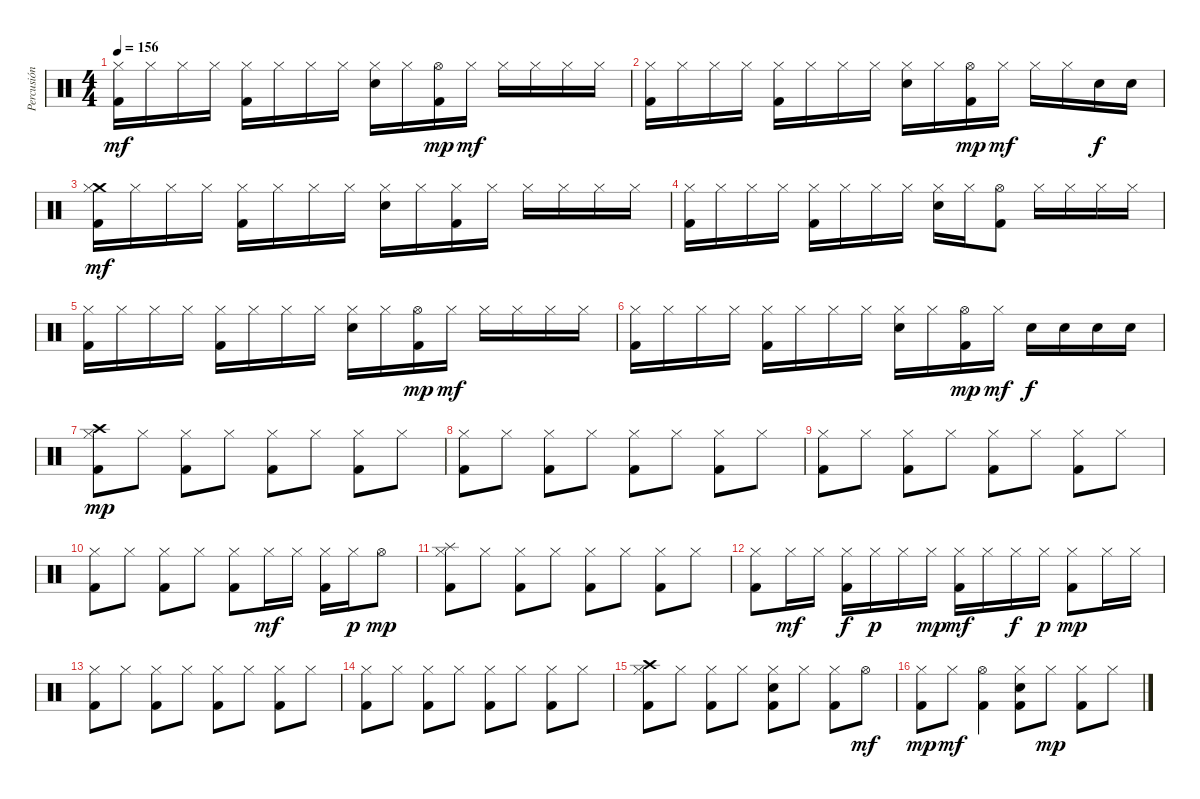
\track ("Percusión" "Percusión") {instrument percussion}
\staff {score}
\articulation defaults
\ts (4 4)
\tempo 156
\clef neutral
\ks c
("Hi-Hat (closed)" "Kick (hit) 2").16{dy mf} "Hi-Hat (closed)".16 "Hi-Hat (closed)".16 "Hi-Hat (closed)".16 ("Hi-Hat (closed)" "Kick (hit) 2").16 "Hi-Hat (closed)".16 "Hi-Hat (closed)".16 "Hi-Hat (closed)".16 ("Hi-Hat (closed)" "Electric Snare (hit)").16 "Hi-Hat (closed)".16 ("Hi-Hat (open)" "Kick (hit) 2").16{dy mp} "Hi-Hat (closed)".16{dy mf} "Hi-Hat (closed)".16 "Hi-Hat (closed)".16 "Hi-Hat (closed)".16 "Hi-Hat (closed)".16 |
("Hi-Hat (closed)" "Kick (hit) 2").16 "Hi-Hat (closed)".16 "Hi-Hat (closed)".16 "Hi-Hat (closed)".16 ("Hi-Hat (closed)" "Kick (hit) 2").16 "Hi-Hat (closed)".16 "Hi-Hat (closed)".16 "Hi-Hat (closed)".16 ("Hi-Hat (closed)" "Electric Snare (hit)").16 "Hi-Hat (closed)".16 ("Hi-Hat (open)" "Kick (hit) 2").16{dy mp} "Hi-Hat (closed)".16{dy mf} "Hi-Hat (closed)".16 "Hi-Hat (closed)".16 "Electric Snare (hit)".16{dy f} "Electric Snare (hit)".16 |
("Crash medium (hit)" "Hi-Hat (closed)" "Kick (hit) 2").16{dy mf} "Hi-Hat (closed)".16 "Hi-Hat (closed)".16 "Hi-Hat (closed)".16 ("Hi-Hat (closed)" "Kick (hit) 2").16 "Hi-Hat (closed)".16 "Hi-Hat (closed)".16 "Hi-Hat (closed)".16 ("Hi-Hat (closed)" "Electric Snare (hit)").16 "Hi-Hat (closed)".16 ("Hi-Hat (closed)" "Kick (hit) 2").16 "Hi-Hat (closed)".16 "Hi-Hat (closed)".16 "Hi-Hat (closed)".16 "Hi-Hat (closed)".16 "Hi-Hat (closed)".16 |
("Hi-Hat (closed)" "Kick (hit) 2").16 "Hi-Hat (closed)".16 "Hi-Hat (closed)".16 "Hi-Hat (closed)".16 ("Hi-Hat (closed)" "Kick (hit) 2").16 "Hi-Hat (closed)".16 "Hi-Hat (closed)".16 "Hi-Hat (closed)".16 ("Hi-Hat (closed)" "Electric Snare (hit)").16 "Hi-Hat (closed)".16 ("Hi-Hat (open)" "Kick (hit) 2").8 "Hi-Hat (closed)".16 "Hi-Hat (closed)".16 "Hi-Hat (closed)".16 "Hi-Hat (closed)".16 |
("Hi-Hat (closed)" "Kick (hit) 2").16 "Hi-Hat (closed)".16 "Hi-Hat (closed)".16 "Hi-Hat (closed)".16 ("Hi-Hat (closed)" "Kick (hit) 2").16 "Hi-Hat (closed)".16 "Hi-Hat (closed)".16 "Hi-Hat (closed)".16 ("Hi-Hat (closed)" "Electric Snare (hit)").16 "Hi-Hat (closed)".16 ("Hi-Hat (open)" "Kick (hit) 2").16{dy mp} "Hi-Hat (closed)".16{dy mf} "Hi-Hat (closed)".16 "Hi-Hat (closed)".16 "Hi-Hat (closed)".16 "Hi-Hat (closed)".16 |
("Hi-Hat (closed)" "Kick (hit) 2").16 "Hi-Hat (closed)".16 "Hi-Hat (closed)".16 "Hi-Hat (closed)".16 ("Hi-Hat (closed)" "Kick (hit) 2").16 "Hi-Hat (closed)".16 "Hi-Hat (closed)".16 "Hi-Hat (closed)".16 ("Hi-Hat (closed)" "Electric Snare (hit)").16 "Hi-Hat (closed)".16 ("Hi-Hat (open)" "Kick (hit) 2").16{dy mp} "Hi-Hat (closed)".16{dy mf} "Electric Snare (hit)".16{dy f} "Electric Snare (hit)".16 "Electric Snare (hit)".16 "Electric Snare (hit)".16 |
("Crash high (hit)" "Hi-Hat (closed)" "Kick (hit) 2").8{dy mp} "Hi-Hat (closed)".8 ("Hi-Hat (closed)" "Kick (hit) 2").8 "Hi-Hat (closed)".8 ("Hi-Hat (closed)" "Kick (hit) 2").8 "Hi-Hat (closed)".8 ("Hi-Hat (closed)" "Kick (hit) 2").8 "Hi-Hat (closed)".8 |
("Hi-Hat (closed)" "Kick (hit) 2").8 "Hi-Hat (closed)".8 ("Hi-Hat (closed)" "Kick (hit) 2").8 "Hi-Hat (closed)".8 ("Hi-Hat (closed)" "Kick (hit) 2").8 "Hi-Hat (closed)".8 ("Hi-Hat (closed)" "Kick (hit) 2").8 "Hi-Hat (closed)".8 |
("Hi-Hat (closed)" "Kick (hit) 2").8 "Hi-Hat (closed)".8 ("Hi-Hat (closed)" "Kick (hit) 2").8 "Hi-Hat (closed)".8 ("Hi-Hat (closed)" "Kick (hit) 2").8 "Hi-Hat (closed)".8 ("Hi-Hat (closed)" "Kick (hit) 2").8 "Hi-Hat (closed)".8 |
("Hi-Hat (closed)" "Kick (hit) 2").8 "Hi-Hat (closed)".8 ("Hi-Hat (closed)" "Kick (hit) 2").8 "Hi-Hat (closed)".8 ("Hi-Hat (closed)" "Kick (hit) 2").8 "Hi-Hat (closed)".16{dy mf} "Hi-Hat (closed)".16 ("Hi-Hat (closed)" "Kick (hit) 2").16 "Hi-Hat (closed)".16{dy p} "Hi-Hat (open)".8{dy mp} |
("Splash (hit)" "Hi-Hat (closed)" "Kick (hit) 2").8 "Hi-Hat (closed)".8 ("Hi-Hat (closed)" "Kick (hit) 2").8 "Hi-Hat (closed)".8 ("Hi-Hat (closed)" "Kick (hit) 2").8 "Hi-Hat (closed)".8 ("Hi-Hat (closed)" "Kick (hit) 2").8 "Hi-Hat (closed)".8 |
("Hi-Hat (closed)" "Kick (hit) 2").8 "Hi-Hat (closed)".16{dy mf} "Hi-Hat (closed)".16 ("Hi-Hat (closed)" "Kick (hit) 2").16{dy f} "Hi-Hat (closed)".16{dy p} "Hi-Hat (closed)".16 "Hi-Hat (closed)".16{dy mp} ("Hi-Hat (closed)" "Kick (hit) 2").16{dy mf} "Hi-Hat (closed)".16 "Hi-Hat (closed)".16{dy f} "Hi-Hat (closed)".16{dy p} ("Hi-Hat (closed)" "Kick (hit) 2").8{dy mp} "Hi-Hat (closed)".16 "Hi-Hat (closed)".16 |
("Hi-Hat (closed)" "Kick (hit) 2").8 "Hi-Hat (closed)".8 ("Hi-Hat (closed)" "Kick (hit) 2").8 "Hi-Hat (closed)".8 ("Hi-Hat (closed)" "Kick (hit) 2").8 "Hi-Hat (closed)".8 ("Hi-Hat (closed)" "Kick (hit) 2").8 "Hi-Hat (closed)".8 |
("Hi-Hat (closed)" "Kick (hit) 2").8 "Hi-Hat (closed)".8 ("Hi-Hat (closed)" "Kick (hit) 2").8 "Hi-Hat (closed)".8 ("Hi-Hat (closed)" "Kick (hit) 2").8 "Hi-Hat (closed)".8 ("Hi-Hat (closed)" "Kick (hit) 2").8 "Hi-Hat (closed)".8 |
("Crash high (hit)" "Hi-Hat (closed)" "Kick (hit) 2").8 "Hi-Hat (closed)".8 ("Hi-Hat (closed)" "Kick (hit) 2").8 "Hi-Hat (closed)".8 ("Hi-Hat (closed)" "Kick (hit) 2" "Electric Snare (hit)").8 "Hi-Hat (closed)".8 ("Hi-Hat (closed)" "Kick (hit) 2").8 "Hi-Hat (open)".8{dy mf} |
("Hi-Hat (closed)" "Kick (hit) 2").8{dy mp} "Hi-Hat (closed)".8{dy mf} ("Hi-Hat (open)" "Kick (hit) 2").4 ("Hi-Hat (closed)" "Kick (hit) 2" "Electric Snare (hit)").8 "Hi-Hat (closed)".8{dy mp} ("Hi-Hat (closed)" "Kick (hit) 2").8 "Hi-Hat (closed)".8
